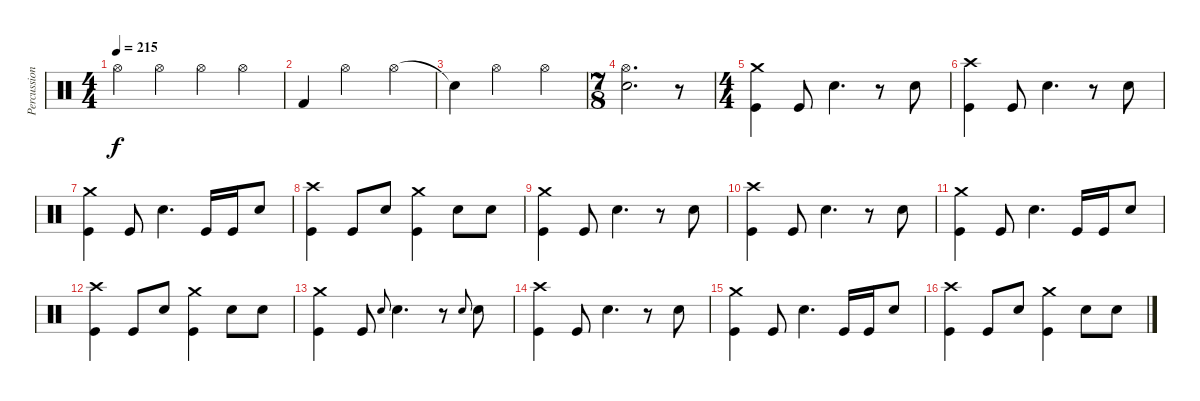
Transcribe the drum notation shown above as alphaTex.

\track ("Percussion" "Percussion") {instrument percussion}
\staff {score}
\articulation defaults
\ts (4 4)
\tempo 215
\clef neutral
\ks c "Hi-Hat (open)".4{dy f} "Hi-Hat (open)".4 "Hi-Hat (open)".4 "Hi-Hat (open)".4
|
"Kick (hit) 2".4 "Hi-Hat (open)".2 "Hi-Hat (open)".4 |
"Snare (hit)"{t}.4 "Hi-Hat (open)".2 "Hi-Hat (open)".4 |
\ts (7 8)
("Hi-Hat (open)" "Electric Snare (hit)").2{d} r.8 |
\ts (4 4)
("Crash medium (hit)" "Kick (hit)").4 "Kick (hit)".8 "Electric Snare (hit)".4{d} r.8 "Electric Snare (hit)".8 |
("Crash high (hit)" "Kick (hit)").4 "Kick (hit)".8 "Electric Snare (hit)".4{d} r.8 "Electric Snare (hit)".8 |
("Crash medium (hit)" "Kick (hit)").4 "Kick (hit)".8 "Electric Snare (hit)".4{d} "Kick (hit)".16 "Kick (hit)".16 "Electric Snare (hit)".8 |
("Crash high (hit)" "Kick (hit)").4 "Kick (hit)".8 "Electric Snare (hit)".8 ("Crash medium (hit)" "Kick (hit)").4 "Electric Snare (hit)".8 "Electric Snare (hit)".8 |
("Crash medium (hit)" "Kick (hit)").4 "Kick (hit)".8 "Electric Snare (hit)".4{d} r.8 "Electric Snare (hit)".8 |
("Crash high (hit)" "Kick (hit)").4 "Kick (hit)".8 "Electric Snare (hit)".4{d} r.8 "Electric Snare (hit)".8 |
("Crash medium (hit)" "Kick (hit)").4 "Kick (hit)".8 "Electric Snare (hit)".4{d} "Kick (hit)".16 "Kick (hit)".16 "Electric Snare (hit)".8 |
("Crash high (hit)" "Kick (hit)").4 "Kick (hit)".8 "Electric Snare (hit)".8 ("Crash medium (hit)" "Kick (hit)").4 "Electric Snare (hit)".8 "Electric Snare (hit)".8 |
("Crash medium (hit)" "Kick (hit)").4 "Kick (hit)".8 "Electric Snare (hit)".8{gr onbeat} "Electric Snare (hit)".4{d} r.8 "Electric Snare (hit)".8{gr onbeat} "Electric Snare (hit)".8 |
("Crash high (hit)" "Kick (hit)").4 "Kick (hit)".8 "Electric Snare (hit)".4{d} r.8 "Electric Snare (hit)".8 |
("Crash medium (hit)" "Kick (hit)").4 "Kick (hit)".8 "Electric Snare (hit)".4{d} "Kick (hit)".16 "Kick (hit)".16 "Electric Snare (hit)".8 |
("Crash high (hit)" "Kick (hit)").4 "Kick (hit)".8 "Electric Snare (hit)".8 ("Crash medium (hit)" "Kick (hit)").4 "Electric Snare (hit)".8 "Electric Snare (hit)".8
